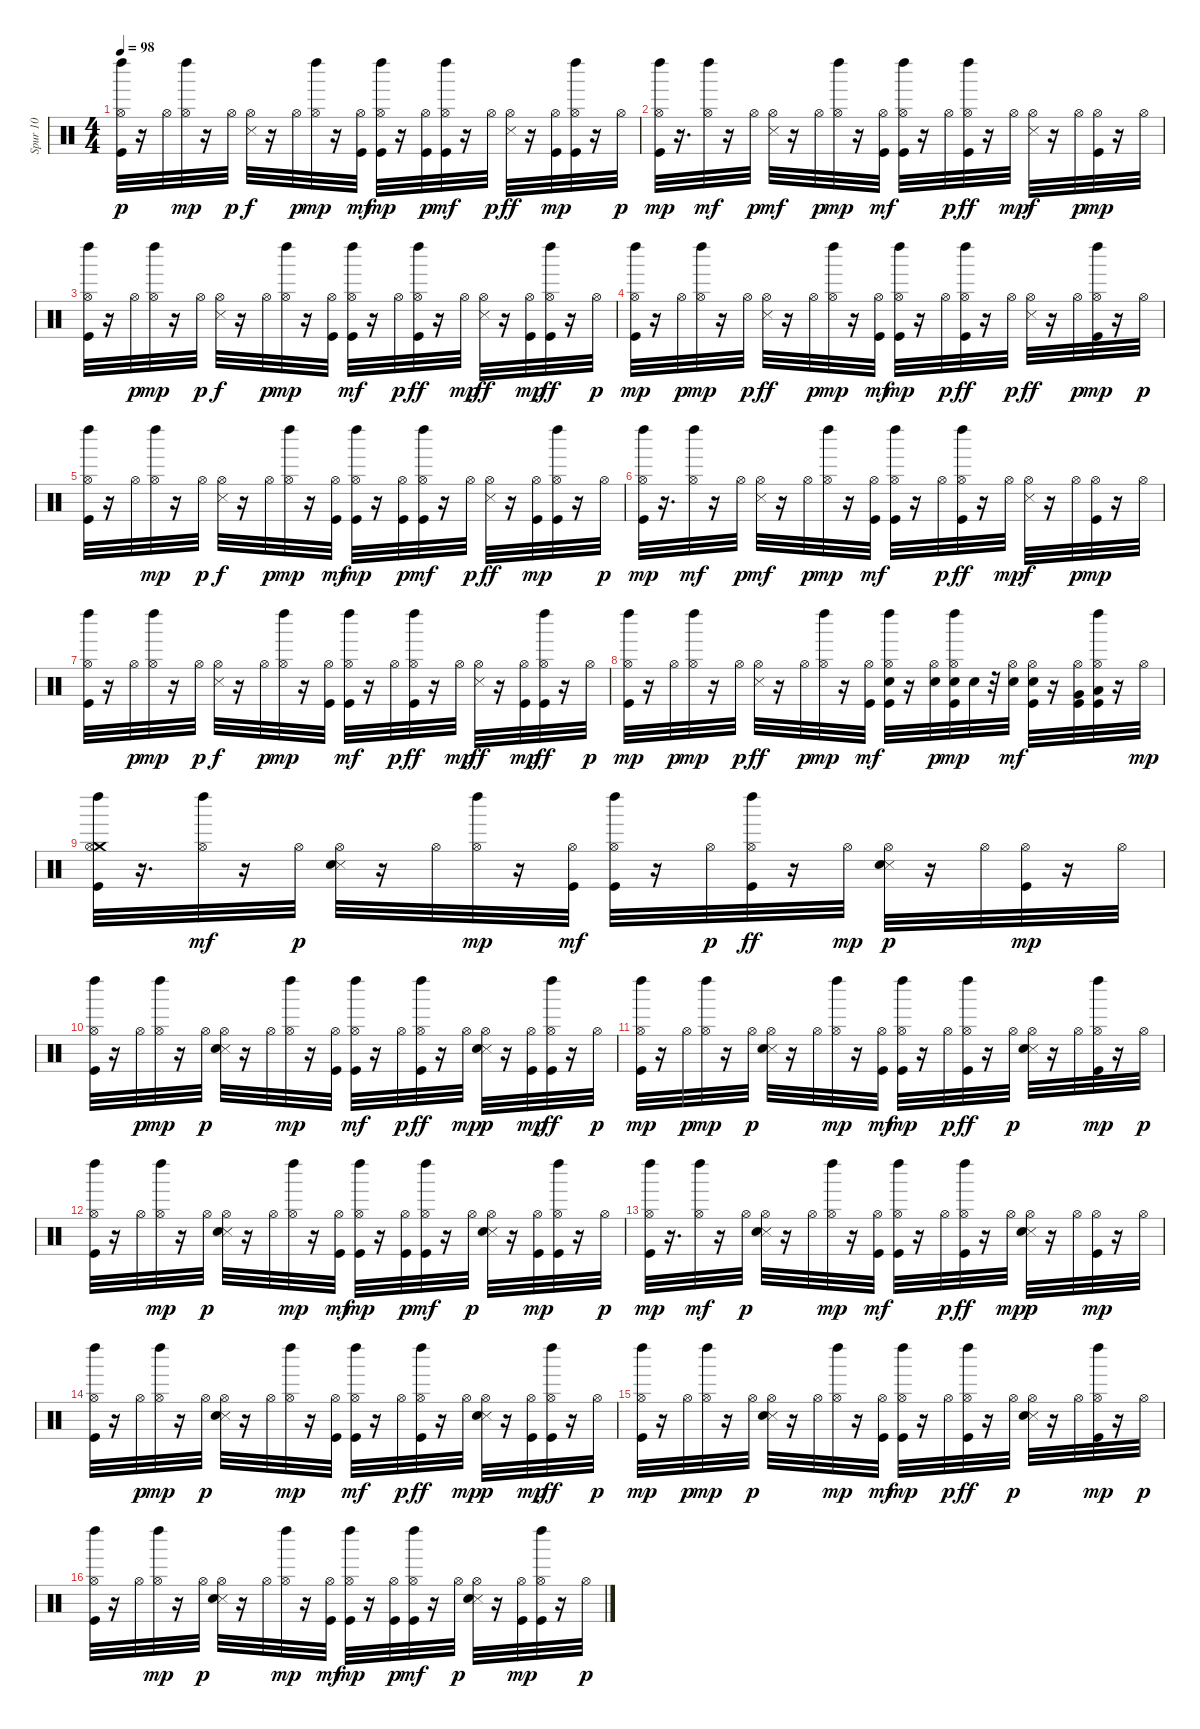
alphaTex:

\track ("Spur 10" "Spur 10") {instrument percussion}
\staff {score}
\articulation defaults
\ts (4 4)
\tempo 98
\clef neutral
\ks c
("Hi-Hat (open)" "Kick (hit)" "Left Maraca (hit)").32{dy p} r.16 "Hi-Hat (open)".32 ("Hi-Hat (open)" "Left Maraca (hit)").32{dy mp} r.16 "Hi-Hat (open)".32{dy p} ("Hi-Hat (open)" "Snare (side stick) 3").32{dy f} r.16 "Hi-Hat (open)".32{dy p} ("Hi-Hat (open)" "Left Maraca (hit)").32{dy mp} r.16 ("Hi-Hat (open)" "Kick (hit)").32{dy mf} ("Hi-Hat (open)" "Kick (hit)" "Left Maraca (hit)").32{dy mp} r.16 ("Hi-Hat (open)" "Kick (hit)").32{dy p} ("Hi-Hat (open)" "Kick (hit)" "Left Maraca (hit)").32{dy mf} r.16 "Hi-Hat (open)".32{dy p} ("Hi-Hat (open)" "Snare (side stick) 3").32{dy ff} r.16 ("Hi-Hat (open)" "Kick (hit)").32{dy mp} ("Hi-Hat (open)" "Kick (hit)" "Left Maraca (hit)").32 r.16 "Hi-Hat (open)".32{dy p} |
("Hi-Hat (open)" "Kick (hit)" "Left Maraca (hit)").32{dy mp} r.16{d} ("Hi-Hat (open)" "Left Maraca (hit)").32{dy mf} r.16 "Hi-Hat (open)".32{dy p} ("Hi-Hat (open)" "Snare (side stick) 3").32{dy mf} r.16 "Hi-Hat (open)".32{dy p} ("Hi-Hat (open)" "Left Maraca (hit)").32{dy mp} r.16 ("Hi-Hat (open)" "Kick (hit)").32{dy mf} ("Hi-Hat (open)" "Kick (hit)" "Left Maraca (hit)").32 r.16 "Hi-Hat (open)".32{dy p} ("Hi-Hat (open)" "Kick (hit)" "Left Maraca (hit)").32{dy ff} r.16 "Hi-Hat (open)".32{dy mp} ("Hi-Hat (open)" "Snare (side stick) 3").32{dy f} r.16 "Hi-Hat (open)".32{dy p} ("Hi-Hat (open)" "Kick (hit)").32{dy mp} r.16 "Hi-Hat (open)".32 |
("Hi-Hat (open)" "Kick (hit)" "Left Maraca (hit)").32 r.16 "Hi-Hat (open)".32{dy p} ("Hi-Hat (open)" "Left Maraca (hit)").32{dy mp} r.16 "Hi-Hat (open)".32{dy p} ("Hi-Hat (open)" "Snare (side stick) 3").32{dy f} r.16 "Hi-Hat (open)".32{dy p} ("Hi-Hat (open)" "Left Maraca (hit)").32{dy mp} r.16 ("Hi-Hat (open)" "Kick (hit)").32 ("Hi-Hat (open)" "Kick (hit)" "Left Maraca (hit)").32{dy mf} r.16 "Hi-Hat (open)".32{dy p} ("Hi-Hat (open)" "Kick (hit)" "Left Maraca (hit)").32{dy ff} r.16 "Hi-Hat (open)".32{dy mp} ("Hi-Hat (open)" "Snare (side stick) 3").32{dy ff} r.16 ("Hi-Hat (open)" "Kick (hit)").32{dy mp} ("Hi-Hat (open)" "Kick (hit)" "Left Maraca (hit)").32{dy ff} r.16 "Hi-Hat (open)".32{dy p} |
("Hi-Hat (open)" "Kick (hit)" "Left Maraca (hit)").32{dy mp} r.16 "Hi-Hat (open)".32{dy p} ("Hi-Hat (open)" "Left Maraca (hit)").32{dy mp} r.16 "Hi-Hat (open)".32{dy p} ("Hi-Hat (open)" "Snare (side stick) 3").32{dy ff} r.16 "Hi-Hat (open)".32{dy p} ("Hi-Hat (open)" "Left Maraca (hit)").32{dy mp} r.16 ("Hi-Hat (open)" "Kick (hit)").32{dy mf} ("Hi-Hat (open)" "Kick (hit)" "Left Maraca (hit)").32{dy mp} r.16 "Hi-Hat (open)".32{dy p} ("Hi-Hat (open)" "Kick (hit)" "Left Maraca (hit)").32{dy ff} r.16 "Hi-Hat (open)".32{dy p} ("Hi-Hat (open)" "Snare (side stick) 3").32{dy ff} r.16 "Hi-Hat (open)".32{dy p} ("Hi-Hat (open)" "Kick (hit)" "Left Maraca (hit)").32{dy mp} r.16 "Hi-Hat (open)".32{dy p} |
("Hi-Hat (open)" "Kick (hit)" "Left Maraca (hit)").32 r.16 "Hi-Hat (open)".32 ("Hi-Hat (open)" "Left Maraca (hit)").32{dy mp} r.16 "Hi-Hat (open)".32{dy p} ("Hi-Hat (open)" "Snare (side stick) 3").32{dy f} r.16 "Hi-Hat (open)".32{dy p} ("Hi-Hat (open)" "Left Maraca (hit)").32{dy mp} r.16 ("Hi-Hat (open)" "Kick (hit)").32{dy mf} ("Hi-Hat (open)" "Kick (hit)" "Left Maraca (hit)").32{dy mp} r.16 ("Hi-Hat (open)" "Kick (hit)").32{dy p} ("Hi-Hat (open)" "Kick (hit)" "Left Maraca (hit)").32{dy mf} r.16 "Hi-Hat (open)".32{dy p} ("Hi-Hat (open)" "Snare (side stick) 3").32{dy ff} r.16 ("Hi-Hat (open)" "Kick (hit)").32{dy mp} ("Hi-Hat (open)" "Kick (hit)" "Left Maraca (hit)").32 r.16 "Hi-Hat (open)".32{dy p} |
("Hi-Hat (open)" "Kick (hit)" "Left Maraca (hit)").32{dy mp} r.16{d} ("Hi-Hat (open)" "Left Maraca (hit)").32{dy mf} r.16 "Hi-Hat (open)".32{dy p} ("Hi-Hat (open)" "Snare (side stick) 3").32{dy mf} r.16 "Hi-Hat (open)".32{dy p} ("Hi-Hat (open)" "Left Maraca (hit)").32{dy mp} r.16 ("Hi-Hat (open)" "Kick (hit)").32{dy mf} ("Hi-Hat (open)" "Kick (hit)" "Left Maraca (hit)").32 r.16 "Hi-Hat (open)".32{dy p} ("Hi-Hat (open)" "Kick (hit)" "Left Maraca (hit)").32{dy ff} r.16 "Hi-Hat (open)".32{dy mp} ("Hi-Hat (open)" "Snare (side stick) 3").32{dy f} r.16 "Hi-Hat (open)".32{dy p} ("Hi-Hat (open)" "Kick (hit)").32{dy mp} r.16 "Hi-Hat (open)".32 |
("Hi-Hat (open)" "Kick (hit)" "Left Maraca (hit)").32 r.16 "Hi-Hat (open)".32{dy p} ("Hi-Hat (open)" "Left Maraca (hit)").32{dy mp} r.16 "Hi-Hat (open)".32{dy p} ("Hi-Hat (open)" "Snare (side stick) 3").32{dy f} r.16 "Hi-Hat (open)".32{dy p} ("Hi-Hat (open)" "Left Maraca (hit)").32{dy mp} r.16 ("Hi-Hat (open)" "Kick (hit)").32 ("Hi-Hat (open)" "Kick (hit)" "Left Maraca (hit)").32{dy mf} r.16 "Hi-Hat (open)".32{dy p} ("Hi-Hat (open)" "Kick (hit)" "Left Maraca (hit)").32{dy ff} r.16 "Hi-Hat (open)".32{dy mp} ("Hi-Hat (open)" "Snare (side stick) 3").32{dy ff} r.16 ("Hi-Hat (open)" "Kick (hit)").32{dy mp} ("Hi-Hat (open)" "Kick (hit)" "Left Maraca (hit)").32{dy ff} r.16 "Hi-Hat (open)".32{dy p} |
("Hi-Hat (open)" "Kick (hit)" "Left Maraca (hit)").32{dy mp} r.16 "Hi-Hat (open)".32{dy p} ("Hi-Hat (open)" "Left Maraca (hit)").32{dy mp} r.16 "Hi-Hat (open)".32{dy p} ("Hi-Hat (open)" "Snare (side stick) 3").32{dy ff} r.16 "Hi-Hat (open)".32{dy p} ("Hi-Hat (open)" "Left Maraca (hit)").32{dy mp} r.16 ("Hi-Hat (open)" "Kick (hit)").32{dy mf} ("Hi-Hat (open)" "Kick (hit)" "Left Maraca (hit)" "Snare (hit) 2").32 r.16 ("Hi-Hat (open)" "Snare (hit) 2").32{dy p} ("Hi-Hat (open)" "Kick (hit)" "Left Maraca (hit)" "Snare (hit) 2").32{dy mp} "Snare (hit) 2".32 r.32 ("Hi-Hat (open)" "Snare (hit) 2").32{dy mf} ("Hi-Hat (open)" "Kick (hit)" "Snare (hit) 2").32 r.16 ("Hi-Hat (open)" "Kick (hit)" "Very Low Tom (hit)").32 ("Hi-Hat (open)" "Kick (hit)" "Left Maraca (hit)" "Low Floor Tom (hit)").32 r.16 "Hi-Hat (open)".32{dy mp} |
("Crash medium (hit)" "Hi-Hat (open)" "Kick (hit)" "Left Maraca (hit)").32 r.16{d} ("Hi-Hat (open)" "Left Maraca (hit)").32{dy mf} r.16 "Hi-Hat (open)".32{dy p} ("Hi-Hat (open)" "Snare (side stick) 3" "Electric Snare (hit)").32 r.16 "Hi-Hat (open)".32 ("Hi-Hat (open)" "Left Maraca (hit)").32{dy mp} r.16 ("Hi-Hat (open)" "Kick (hit)").32{dy mf} ("Hi-Hat (open)" "Kick (hit)" "Left Maraca (hit)").32 r.16 "Hi-Hat (open)".32{dy p} ("Hi-Hat (open)" "Kick (hit)" "Left Maraca (hit)").32{dy ff} r.16 "Hi-Hat (open)".32{dy mp} ("Hi-Hat (open)" "Snare (side stick) 3" "Electric Snare (hit)").32{dy p} r.16 "Hi-Hat (open)".32 ("Hi-Hat (open)" "Kick (hit)").32{dy mp} r.16 "Hi-Hat (open)".32 |
("Hi-Hat (open)" "Kick (hit)" "Left Maraca (hit)").32 r.16 "Hi-Hat (open)".32{dy p} ("Hi-Hat (open)" "Left Maraca (hit)").32{dy mp} r.16 "Hi-Hat (open)".32{dy p} ("Hi-Hat (open)" "Snare (side stick) 3" "Electric Snare (hit)").32 r.16 "Hi-Hat (open)".32 ("Hi-Hat (open)" "Left Maraca (hit)").32{dy mp} r.16 ("Hi-Hat (open)" "Kick (hit)").32 ("Hi-Hat (open)" "Kick (hit)" "Left Maraca (hit)").32{dy mf} r.16 "Hi-Hat (open)".32{dy p} ("Hi-Hat (open)" "Kick (hit)" "Left Maraca (hit)").32{dy ff} r.16 "Hi-Hat (open)".32{dy mp} ("Hi-Hat (open)" "Snare (side stick) 3" "Electric Snare (hit)").32{dy p} r.16 ("Hi-Hat (open)" "Kick (hit)").32{dy mp} ("Hi-Hat (open)" "Kick (hit)" "Left Maraca (hit)").32{dy ff} r.16 "Hi-Hat (open)".32{dy p} |
("Hi-Hat (open)" "Kick (hit)" "Left Maraca (hit)").32{dy mp} r.16 "Hi-Hat (open)".32{dy p} ("Hi-Hat (open)" "Left Maraca (hit)").32{dy mp} r.16 "Hi-Hat (open)".32{dy p} ("Hi-Hat (open)" "Snare (side stick) 3" "Electric Snare (hit)").32 r.16 "Hi-Hat (open)".32 ("Hi-Hat (open)" "Left Maraca (hit)").32{dy mp} r.16 ("Hi-Hat (open)" "Kick (hit)").32{dy mf} ("Hi-Hat (open)" "Kick (hit)" "Left Maraca (hit)").32{dy mp} r.16 "Hi-Hat (open)".32{dy p} ("Hi-Hat (open)" "Kick (hit)" "Left Maraca (hit)").32{dy ff} r.16 "Hi-Hat (open)".32{dy p} ("Hi-Hat (open)" "Snare (side stick) 3" "Electric Snare (hit)").32 r.16 "Hi-Hat (open)".32 ("Hi-Hat (open)" "Kick (hit)" "Left Maraca (hit)").32{dy mp} r.16 "Hi-Hat (open)".32{dy p} |
("Hi-Hat (open)" "Kick (hit)" "Left Maraca (hit)").32 r.16 "Hi-Hat (open)".32 ("Hi-Hat (open)" "Left Maraca (hit)").32{dy mp} r.16 "Hi-Hat (open)".32{dy p} ("Hi-Hat (open)" "Snare (side stick) 3" "Electric Snare (hit)").32 r.16 "Hi-Hat (open)".32 ("Hi-Hat (open)" "Left Maraca (hit)").32{dy mp} r.16 ("Hi-Hat (open)" "Kick (hit)").32{dy mf} ("Hi-Hat (open)" "Kick (hit)" "Left Maraca (hit)").32{dy mp} r.16 ("Hi-Hat (open)" "Kick (hit)").32{dy p} ("Hi-Hat (open)" "Kick (hit)" "Left Maraca (hit)").32{dy mf} r.16 "Hi-Hat (open)".32{dy p} ("Hi-Hat (open)" "Snare (side stick) 3" "Electric Snare (hit)").32 r.16 ("Hi-Hat (open)" "Kick (hit)").32{dy mp} ("Hi-Hat (open)" "Kick (hit)" "Left Maraca (hit)").32 r.16 "Hi-Hat (open)".32{dy p} |
("Hi-Hat (open)" "Kick (hit)" "Left Maraca (hit)").32{dy mp} r.16{d} ("Hi-Hat (open)" "Left Maraca (hit)").32{dy mf} r.16 "Hi-Hat (open)".32{dy p} ("Hi-Hat (open)" "Snare (side stick) 3" "Electric Snare (hit)").32 r.16 "Hi-Hat (open)".32 ("Hi-Hat (open)" "Left Maraca (hit)").32{dy mp} r.16 ("Hi-Hat (open)" "Kick (hit)").32{dy mf} ("Hi-Hat (open)" "Kick (hit)" "Left Maraca (hit)").32 r.16 "Hi-Hat (open)".32{dy p} ("Hi-Hat (open)" "Kick (hit)" "Left Maraca (hit)").32{dy ff} r.16 "Hi-Hat (open)".32{dy mp} ("Hi-Hat (open)" "Snare (side stick) 3" "Electric Snare (hit)").32{dy p} r.16 "Hi-Hat (open)".32 ("Hi-Hat (open)" "Kick (hit)").32{dy mp} r.16 "Hi-Hat (open)".32 |
("Hi-Hat (open)" "Kick (hit)" "Left Maraca (hit)").32 r.16 "Hi-Hat (open)".32{dy p} ("Hi-Hat (open)" "Left Maraca (hit)").32{dy mp} r.16 "Hi-Hat (open)".32{dy p} ("Hi-Hat (open)" "Snare (side stick) 3" "Electric Snare (hit)").32 r.16 "Hi-Hat (open)".32 ("Hi-Hat (open)" "Left Maraca (hit)").32{dy mp} r.16 ("Hi-Hat (open)" "Kick (hit)").32 ("Hi-Hat (open)" "Kick (hit)" "Left Maraca (hit)").32{dy mf} r.16 "Hi-Hat (open)".32{dy p} ("Hi-Hat (open)" "Kick (hit)" "Left Maraca (hit)").32{dy ff} r.16 "Hi-Hat (open)".32{dy mp} ("Hi-Hat (open)" "Snare (side stick) 3" "Electric Snare (hit)").32{dy p} r.16 ("Hi-Hat (open)" "Kick (hit)").32{dy mp} ("Hi-Hat (open)" "Kick (hit)" "Left Maraca (hit)").32{dy ff} r.16 "Hi-Hat (open)".32{dy p} |
("Hi-Hat (open)" "Kick (hit)" "Left Maraca (hit)").32{dy mp} r.16 "Hi-Hat (open)".32{dy p} ("Hi-Hat (open)" "Left Maraca (hit)").32{dy mp} r.16 "Hi-Hat (open)".32{dy p} ("Hi-Hat (open)" "Snare (side stick) 3" "Electric Snare (hit)").32 r.16 "Hi-Hat (open)".32 ("Hi-Hat (open)" "Left Maraca (hit)").32{dy mp} r.16 ("Hi-Hat (open)" "Kick (hit)").32{dy mf} ("Hi-Hat (open)" "Kick (hit)" "Left Maraca (hit)").32{dy mp} r.16 "Hi-Hat (open)".32{dy p} ("Hi-Hat (open)" "Kick (hit)" "Left Maraca (hit)").32{dy ff} r.16 "Hi-Hat (open)".32{dy p} ("Hi-Hat (open)" "Snare (side stick) 3" "Electric Snare (hit)").32 r.16 "Hi-Hat (open)".32 ("Hi-Hat (open)" "Kick (hit)" "Left Maraca (hit)").32{dy mp} r.16 "Hi-Hat (open)".32{dy p} |
("Hi-Hat (open)" "Kick (hit)" "Left Maraca (hit)").32 r.16 "Hi-Hat (open)".32 ("Hi-Hat (open)" "Left Maraca (hit)").32{dy mp} r.16 "Hi-Hat (open)".32{dy p} ("Hi-Hat (open)" "Snare (side stick) 3" "Electric Snare (hit)").32 r.16 "Hi-Hat (open)".32 ("Hi-Hat (open)" "Left Maraca (hit)").32{dy mp} r.16 ("Hi-Hat (open)" "Kick (hit)").32{dy mf} ("Hi-Hat (open)" "Kick (hit)" "Left Maraca (hit)").32{dy mp} r.16 ("Hi-Hat (open)" "Kick (hit)").32{dy p} ("Hi-Hat (open)" "Kick (hit)" "Left Maraca (hit)").32{dy mf} r.16 "Hi-Hat (open)".32{dy p} ("Hi-Hat (open)" "Snare (side stick) 3" "Electric Snare (hit)").32 r.16 ("Hi-Hat (open)" "Kick (hit)").32{dy mp} ("Hi-Hat (open)" "Kick (hit)" "Left Maraca (hit)").32 r.16 "Hi-Hat (open)".32{dy p}
